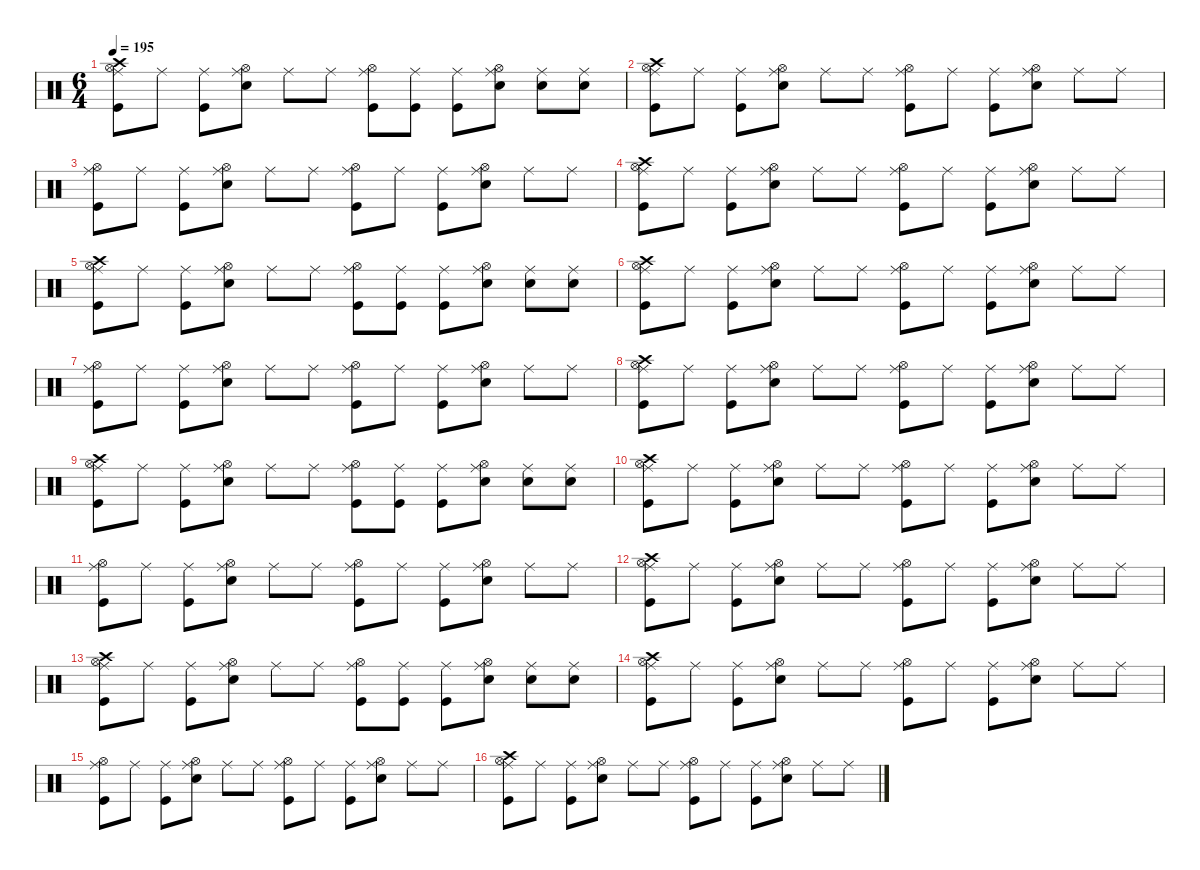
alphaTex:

\defaultSystemsLayout 4
\hideDynamics
\bracketExtendMode nobrackets
\singleTrackTrackNamePolicy hidden
\multiTrackTrackNamePolicy hidden
\firstSystemTrackNameMode fullname
\firstSystemTrackNameOrientation horizontal
\otherSystemsTrackNameOrientation horizontal
\track ("Percussion" "drm.") {defaultSystemsLayout 2 instrument percussion}
\staff {score}
\articulation defaults
\ts (6 4)
\tempo 195
\clef neutral
\ks c
("Crash high (hit)" "Ride (middle)" "Hi-Hat (open)" "Kick (hit)").8{dy f beam Down} "Ride (middle)".8{beam Down} ("Ride (middle)" "Kick (hit)").8{beam Down} ("Ride (middle)" "Snare (hit) 2" "Hi-Hat (open)").8{beam Down} "Ride (middle)".8{beam Down} "Ride (middle)".8{beam Down} ("Ride (middle)" "Hi-Hat (open)" "Kick (hit)").8{beam Down} ("Ride (middle)" "Kick (hit)").8{beam Down} ("Ride (middle)" "Kick (hit)").8{beam Down} ("Ride (middle)" "Snare (hit) 2" "Hi-Hat (open)").8{beam Down} ("Ride (middle)" "Snare (hit) 2").8{beam Down} ("Ride (middle)" "Snare (hit) 2").8{beam Down} |
("Crash high (hit)" "Ride (middle)" "Hi-Hat (open)" "Kick (hit)").8{beam Down} "Ride (middle)".8{beam Down} ("Ride (middle)" "Kick (hit)").8{beam Down} ("Ride (middle)" "Snare (hit) 2" "Hi-Hat (open)").8{beam Down} "Ride (middle)".8{beam Down} "Ride (middle)".8{beam Down} ("Ride (middle)" "Hi-Hat (open)" "Kick (hit)").8{beam Down} "Ride (middle)".8{beam Down} ("Ride (middle)" "Kick (hit)").8{beam Down} ("Ride (middle)" "Snare (hit) 2" "Hi-Hat (open)").8{beam Down} "Ride (middle)".8{beam Down} "Ride (middle)".8{beam Down} |
("Ride (middle)" "Hi-Hat (open)" "Kick (hit)").8{beam Down} "Ride (middle)".8{beam Down} ("Ride (middle)" "Kick (hit)").8{beam Down} ("Ride (middle)" "Snare (hit) 2" "Hi-Hat (open)").8{beam Down} "Ride (middle)".8{beam Down} "Ride (middle)".8{beam Down} ("Ride (middle)" "Hi-Hat (open)" "Kick (hit)").8{beam Down} "Ride (middle)".8{beam Down} ("Ride (middle)" "Kick (hit)").8{beam Down} ("Ride (middle)" "Snare (hit) 2" "Hi-Hat (open)").8{beam Down} "Ride (middle)".8{beam Down} "Ride (middle)".8{beam Down} |
("Crash high (hit)" "Ride (middle)" "Hi-Hat (open)" "Kick (hit)").8{beam Down} "Ride (middle)".8{beam Down} ("Ride (middle)" "Kick (hit)").8{beam Down} ("Ride (middle)" "Snare (hit) 2" "Hi-Hat (open)").8{beam Down} "Ride (middle)".8{beam Down} "Ride (middle)".8{beam Down} ("Ride (middle)" "Hi-Hat (open)" "Kick (hit)").8{beam Down} "Ride (middle)".8{beam Down} ("Ride (middle)" "Kick (hit)").8{beam Down} ("Ride (middle)" "Snare (hit) 2" "Hi-Hat (open)").8{beam Down} "Ride (middle)".8{beam Down} "Ride (middle)".8{beam Down} |
("Crash high (hit)" "Ride (middle)" "Hi-Hat (open)" "Kick (hit)").8{beam Down} "Ride (middle)".8{beam Down} ("Ride (middle)" "Kick (hit)").8{beam Down} ("Ride (middle)" "Snare (hit) 2" "Hi-Hat (open)").8{beam Down} "Ride (middle)".8{beam Down} "Ride (middle)".8{beam Down} ("Ride (middle)" "Hi-Hat (open)" "Kick (hit)").8{beam Down} ("Ride (middle)" "Kick (hit)").8{beam Down} ("Ride (middle)" "Kick (hit)").8{beam Down} ("Ride (middle)" "Snare (hit) 2" "Hi-Hat (open)").8{beam Down} ("Ride (middle)" "Snare (hit) 2").8{beam Down} ("Ride (middle)" "Snare (hit) 2").8{beam Down} |
("Crash high (hit)" "Ride (middle)" "Hi-Hat (open)" "Kick (hit)").8{beam Down} "Ride (middle)".8{beam Down} ("Ride (middle)" "Kick (hit)").8{beam Down} ("Ride (middle)" "Snare (hit) 2" "Hi-Hat (open)").8{beam Down} "Ride (middle)".8{beam Down} "Ride (middle)".8{beam Down} ("Ride (middle)" "Hi-Hat (open)" "Kick (hit)").8{beam Down} "Ride (middle)".8{beam Down} ("Ride (middle)" "Kick (hit)").8{beam Down} ("Ride (middle)" "Snare (hit) 2" "Hi-Hat (open)").8{beam Down} "Ride (middle)".8{beam Down} "Ride (middle)".8{beam Down} |
("Ride (middle)" "Hi-Hat (open)" "Kick (hit)").8{beam Down} "Ride (middle)".8{beam Down} ("Ride (middle)" "Kick (hit)").8{beam Down} ("Ride (middle)" "Snare (hit) 2" "Hi-Hat (open)").8{beam Down} "Ride (middle)".8{beam Down} "Ride (middle)".8{beam Down} ("Ride (middle)" "Hi-Hat (open)" "Kick (hit)").8{beam Down} "Ride (middle)".8{beam Down} ("Ride (middle)" "Kick (hit)").8{beam Down} ("Ride (middle)" "Snare (hit) 2" "Hi-Hat (open)").8{beam Down} "Ride (middle)".8{beam Down} "Ride (middle)".8{beam Down} |
("Crash high (hit)" "Ride (middle)" "Hi-Hat (open)" "Kick (hit)").8{beam Down} "Ride (middle)".8{beam Down} ("Ride (middle)" "Kick (hit)").8{beam Down} ("Ride (middle)" "Snare (hit) 2" "Hi-Hat (open)").8{beam Down} "Ride (middle)".8{beam Down} "Ride (middle)".8{beam Down} ("Ride (middle)" "Hi-Hat (open)" "Kick (hit)").8{beam Down} "Ride (middle)".8{beam Down} ("Ride (middle)" "Kick (hit)").8{beam Down} ("Ride (middle)" "Snare (hit) 2" "Hi-Hat (open)").8{beam Down} "Ride (middle)".8{beam Down} "Ride (middle)".8{beam Down} |
("Crash high (hit)" "Ride (middle)" "Hi-Hat (open)" "Kick (hit)").8{beam Down} "Ride (middle)".8{beam Down} ("Ride (middle)" "Kick (hit)").8{beam Down} ("Ride (middle)" "Snare (hit) 2" "Hi-Hat (open)").8{beam Down} "Ride (middle)".8{beam Down} "Ride (middle)".8{beam Down} ("Ride (middle)" "Hi-Hat (open)" "Kick (hit)").8{beam Down} ("Ride (middle)" "Kick (hit)").8{beam Down} ("Ride (middle)" "Kick (hit)").8{beam Down} ("Ride (middle)" "Snare (hit) 2" "Hi-Hat (open)").8{beam Down} ("Ride (middle)" "Snare (hit) 2").8{beam Down} ("Ride (middle)" "Snare (hit) 2").8{beam Down} |
("Crash high (hit)" "Ride (middle)" "Hi-Hat (open)" "Kick (hit)").8{beam Down} "Ride (middle)".8{beam Down} ("Ride (middle)" "Kick (hit)").8{beam Down} ("Ride (middle)" "Snare (hit) 2" "Hi-Hat (open)").8{beam Down} "Ride (middle)".8{beam Down} "Ride (middle)".8{beam Down} ("Ride (middle)" "Hi-Hat (open)" "Kick (hit)").8{beam Down} "Ride (middle)".8{beam Down} ("Ride (middle)" "Kick (hit)").8{beam Down} ("Ride (middle)" "Snare (hit) 2" "Hi-Hat (open)").8{beam Down} "Ride (middle)".8{beam Down} "Ride (middle)".8{beam Down} |
("Ride (middle)" "Hi-Hat (open)" "Kick (hit)").8{beam Down} "Ride (middle)".8{beam Down} ("Ride (middle)" "Kick (hit)").8{beam Down} ("Ride (middle)" "Snare (hit) 2" "Hi-Hat (open)").8{beam Down} "Ride (middle)".8{beam Down} "Ride (middle)".8{beam Down} ("Ride (middle)" "Hi-Hat (open)" "Kick (hit)").8{beam Down} "Ride (middle)".8{beam Down} ("Ride (middle)" "Kick (hit)").8{beam Down} ("Ride (middle)" "Snare (hit) 2" "Hi-Hat (open)").8{beam Down} "Ride (middle)".8{beam Down} "Ride (middle)".8{beam Down} |
("Crash high (hit)" "Ride (middle)" "Hi-Hat (open)" "Kick (hit)").8{beam Down} "Ride (middle)".8{beam Down} ("Ride (middle)" "Kick (hit)").8{beam Down} ("Ride (middle)" "Snare (hit) 2" "Hi-Hat (open)").8{beam Down} "Ride (middle)".8{beam Down} "Ride (middle)".8{beam Down} ("Ride (middle)" "Hi-Hat (open)" "Kick (hit)").8{beam Down} "Ride (middle)".8{beam Down} ("Ride (middle)" "Kick (hit)").8{beam Down} ("Ride (middle)" "Snare (hit) 2" "Hi-Hat (open)").8{beam Down} "Ride (middle)".8{beam Down} "Ride (middle)".8{beam Down} |
("Crash high (hit)" "Ride (middle)" "Hi-Hat (open)" "Kick (hit)").8{beam Down} "Ride (middle)".8{beam Down} ("Ride (middle)" "Kick (hit)").8{beam Down} ("Ride (middle)" "Snare (hit) 2" "Hi-Hat (open)").8{beam Down} "Ride (middle)".8{beam Down} "Ride (middle)".8{beam Down} ("Ride (middle)" "Hi-Hat (open)" "Kick (hit)").8{beam Down} ("Ride (middle)" "Kick (hit)").8{beam Down} ("Ride (middle)" "Kick (hit)").8{beam Down} ("Ride (middle)" "Snare (hit) 2" "Hi-Hat (open)").8{beam Down} ("Ride (middle)" "Snare (hit) 2").8{beam Down} ("Ride (middle)" "Snare (hit) 2").8{beam Down} |
("Crash high (hit)" "Ride (middle)" "Hi-Hat (open)" "Kick (hit)").8{beam Down} "Ride (middle)".8{beam Down} ("Ride (middle)" "Kick (hit)").8{beam Down} ("Ride (middle)" "Snare (hit) 2" "Hi-Hat (open)").8{beam Down} "Ride (middle)".8{beam Down} "Ride (middle)".8{beam Down} ("Ride (middle)" "Hi-Hat (open)" "Kick (hit)").8{beam Down} "Ride (middle)".8{beam Down} ("Ride (middle)" "Kick (hit)").8{beam Down} ("Ride (middle)" "Snare (hit) 2" "Hi-Hat (open)").8{beam Down} "Ride (middle)".8{beam Down} "Ride (middle)".8{beam Down} |
("Ride (middle)" "Hi-Hat (open)" "Kick (hit)").8{beam Down} "Ride (middle)".8{beam Down} ("Ride (middle)" "Kick (hit)").8{beam Down} ("Ride (middle)" "Snare (hit) 2" "Hi-Hat (open)").8{beam Down} "Ride (middle)".8{beam Down} "Ride (middle)".8{beam Down} ("Ride (middle)" "Hi-Hat (open)" "Kick (hit)").8{beam Down} "Ride (middle)".8{beam Down} ("Ride (middle)" "Kick (hit)").8{beam Down} ("Ride (middle)" "Snare (hit) 2" "Hi-Hat (open)").8{beam Down} "Ride (middle)".8{beam Down} "Ride (middle)".8{beam Down} |
("Crash high (hit)" "Ride (middle)" "Hi-Hat (open)" "Kick (hit)").8{beam Down} "Ride (middle)".8{beam Down} ("Ride (middle)" "Kick (hit)").8{beam Down} ("Ride (middle)" "Snare (hit) 2" "Hi-Hat (open)").8{beam Down} "Ride (middle)".8{beam Down} "Ride (middle)".8{beam Down} ("Ride (middle)" "Hi-Hat (open)" "Kick (hit)").8{beam Down} "Ride (middle)".8{beam Down} ("Ride (middle)" "Kick (hit)").8{beam Down} ("Ride (middle)" "Snare (hit) 2" "Hi-Hat (open)").8{beam Down} "Ride (middle)".8{beam Down} "Ride (middle)".8{beam Down}
